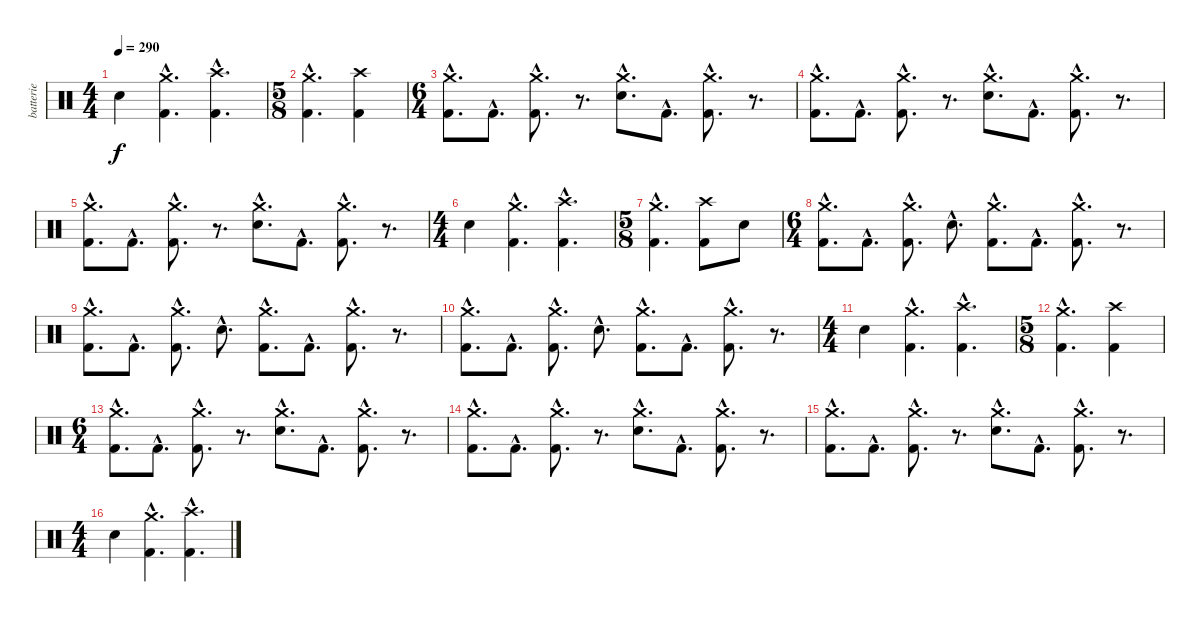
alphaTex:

\track ("batterie" "batterie") {instrument percussion}
\staff {score}
\articulation defaults
\ts (4 4)
\tempo 290
\clef neutral
\ks c "Electric Snare (hit)".4{dy f}
("Crash medium (hit)"{hac} "Kick (hit) 2"{hac}).4{d} ("Crash high (hit)"{hac} "Kick (hit) 2"{hac}).4{d} |
\ts (5 8)
("Crash medium (hit)"{hac} "Kick (hit) 2"{hac}).4{d} ("Crash high (hit)" "Kick (hit) 2").4 |
\ts (6 4)
("Crash medium (hit)"{hac} "Kick (hit) 2"{hac}).8{d} "Kick (hit) 2"{hac}.8{d} ("Crash medium (hit)"{hac} "Kick (hit) 2"{hac}).8{d} r.8{d} ("Crash medium (hit)"{hac} "Electric Snare (hit)"{hac}).8{d} "Kick (hit) 2"{hac}.8{d} ("Crash medium (hit)"{hac} "Kick (hit) 2"{hac}).8{d} r.8{d} |
("Crash medium (hit)"{hac} "Kick (hit) 2"{hac}).8{d} "Kick (hit) 2"{hac}.8{d} ("Crash medium (hit)"{hac} "Kick (hit) 2"{hac}).8{d} r.8{d} ("Crash medium (hit)"{hac} "Electric Snare (hit)"{hac}).8{d} "Kick (hit) 2"{hac}.8{d} ("Crash medium (hit)"{hac} "Kick (hit) 2"{hac}).8{d} r.8{d} |
("Crash medium (hit)"{hac} "Kick (hit) 2"{hac}).8{d} "Kick (hit) 2"{hac}.8{d} ("Crash medium (hit)"{hac} "Kick (hit) 2"{hac}).8{d} r.8{d} ("Crash medium (hit)"{hac} "Electric Snare (hit)"{hac}).8{d} "Kick (hit) 2"{hac}.8{d} ("Crash medium (hit)"{hac} "Kick (hit) 2"{hac}).8{d} r.8{d} |
\ts (4 4)
"Electric Snare (hit)".4 ("Crash medium (hit)"{hac} "Kick (hit) 2"{hac}).4{d} ("Crash high (hit)"{hac} "Kick (hit) 2"{hac}).4{d} |
\ts (5 8)
("Crash medium (hit)"{hac} "Kick (hit) 2"{hac}).4{d} ("Crash high (hit)" "Kick (hit) 2").8 "Electric Snare (hit)".8 |
\ts (6 4)
("Crash medium (hit)"{hac} "Kick (hit) 2"{hac}).8{d} "Kick (hit) 2"{hac}.8{d} ("Crash medium (hit)"{hac} "Kick (hit) 2"{hac}).8{d} "Electric Snare (hit)"{hac}.8{d} ("Crash medium (hit)"{hac} "Kick (hit) 2"{hac}).8{d} "Kick (hit) 2"{hac}.8{d} ("Crash medium (hit)"{hac} "Kick (hit) 2"{hac}).8{d} r.8{d} |
("Crash medium (hit)"{hac} "Kick (hit) 2"{hac}).8{d} "Kick (hit) 2"{hac}.8{d} ("Crash medium (hit)"{hac} "Kick (hit) 2"{hac}).8{d} "Electric Snare (hit)"{hac}.8{d} ("Crash medium (hit)"{hac} "Kick (hit) 2"{hac}).8{d} "Kick (hit) 2"{hac}.8{d} ("Crash medium (hit)"{hac} "Kick (hit) 2"{hac}).8{d} r.8{d} |
("Crash medium (hit)"{hac} "Kick (hit) 2"{hac}).8{d} "Kick (hit) 2"{hac}.8{d} ("Crash medium (hit)"{hac} "Kick (hit) 2"{hac}).8{d} "Electric Snare (hit)"{hac}.8{d} ("Crash medium (hit)"{hac} "Kick (hit) 2"{hac}).8{d} "Kick (hit) 2"{hac}.8{d} ("Crash medium (hit)"{hac} "Kick (hit) 2"{hac}).8{d} r.8{d} |
\ts (4 4)
"Electric Snare (hit)".4 ("Crash medium (hit)"{hac} "Kick (hit) 2"{hac}).4{d} ("Crash high (hit)"{hac} "Kick (hit) 2"{hac}).4{d} |
\ts (5 8)
("Crash medium (hit)"{hac} "Kick (hit) 2"{hac}).4{d} ("Crash high (hit)" "Kick (hit) 2").4 |
\ts (6 4)
("Crash medium (hit)"{hac} "Kick (hit) 2"{hac}).8{d} "Kick (hit) 2"{hac}.8{d} ("Crash medium (hit)"{hac} "Kick (hit) 2"{hac}).8{d} r.8{d} ("Crash medium (hit)"{hac} "Electric Snare (hit)"{hac}).8{d} "Kick (hit) 2"{hac}.8{d} ("Crash medium (hit)"{hac} "Kick (hit) 2"{hac}).8{d} r.8{d} |
("Crash medium (hit)"{hac} "Kick (hit) 2"{hac}).8{d} "Kick (hit) 2"{hac}.8{d} ("Crash medium (hit)"{hac} "Kick (hit) 2"{hac}).8{d} r.8{d} ("Crash medium (hit)"{hac} "Electric Snare (hit)"{hac}).8{d} "Kick (hit) 2"{hac}.8{d} ("Crash medium (hit)"{hac} "Kick (hit) 2"{hac}).8{d} r.8{d} |
("Crash medium (hit)"{hac} "Kick (hit) 2"{hac}).8{d} "Kick (hit) 2"{hac}.8{d} ("Crash medium (hit)"{hac} "Kick (hit) 2"{hac}).8{d} r.8{d} ("Crash medium (hit)"{hac} "Electric Snare (hit)"{hac}).8{d} "Kick (hit) 2"{hac}.8{d} ("Crash medium (hit)"{hac} "Kick (hit) 2"{hac}).8{d} r.8{d} |
\ts (4 4)
"Electric Snare (hit)".4 ("Crash medium (hit)"{hac} "Kick (hit) 2"{hac}).4{d} ("Crash high (hit)"{hac} "Kick (hit) 2"{hac}).4{d}
